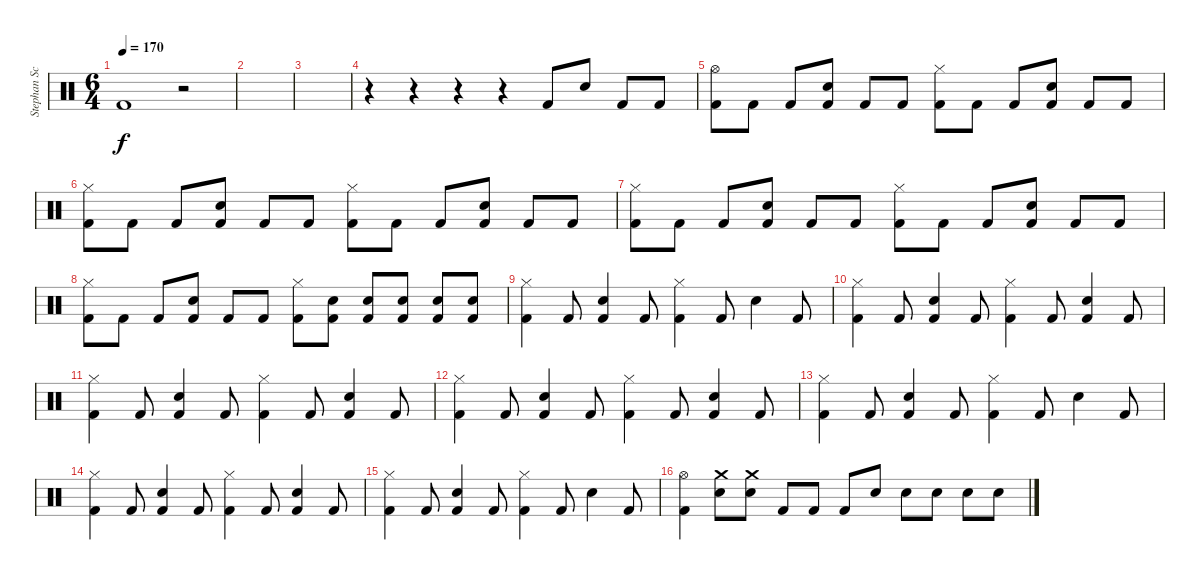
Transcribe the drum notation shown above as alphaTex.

\track ("Stephan Schwartzmann" "Stephan Sc") {instrument percussion}
\staff {score}
\articulation defaults
\ts (6 4)
\tempo 170
\clef neutral
\ks c "Kick (hit) 2".1{dy f}
r.2 |
|
|
r.4 r.4 r.4 r.4 "Kick (hit) 2".8 "Snare (hit) 2".8 "Kick (hit) 2".8 "Kick (hit) 2".8 |
("Hi-Hat (open)" "Kick (hit) 2").8 "Kick (hit) 2".8 "Kick (hit) 2".8 ("Snare (hit) 2" "Kick (hit) 2").8 "Kick (hit) 2".8 "Kick (hit) 2".8 ("Hi-Hat (closed)" "Kick (hit) 2").8 "Kick (hit) 2".8 "Kick (hit) 2".8 ("Snare (hit) 2" "Kick (hit) 2").8 "Kick (hit) 2".8 "Kick (hit) 2".8 |
("Hi-Hat (closed)" "Kick (hit) 2").8 "Kick (hit) 2".8 "Kick (hit) 2".8 ("Snare (hit) 2" "Kick (hit) 2").8 "Kick (hit) 2".8 "Kick (hit) 2".8 ("Hi-Hat (closed)" "Kick (hit) 2").8 "Kick (hit) 2".8 "Kick (hit) 2".8 ("Snare (hit) 2" "Kick (hit) 2").8 "Kick (hit) 2".8 "Kick (hit) 2".8 |
("Hi-Hat (closed)" "Kick (hit) 2").8 "Kick (hit) 2".8 "Kick (hit) 2".8 ("Snare (hit) 2" "Kick (hit) 2").8 "Kick (hit) 2".8 "Kick (hit) 2".8 ("Hi-Hat (closed)" "Kick (hit) 2").8 "Kick (hit) 2".8 "Kick (hit) 2".8 ("Snare (hit) 2" "Kick (hit) 2").8 "Kick (hit) 2".8 "Kick (hit) 2".8 |
("Hi-Hat (closed)" "Kick (hit) 2").8 "Kick (hit) 2".8 "Kick (hit) 2".8 ("Snare (hit) 2" "Kick (hit) 2").8 "Kick (hit) 2".8 "Kick (hit) 2".8 ("Hi-Hat (closed)" "Kick (hit) 2").8 ("Snare (hit) 2" "Kick (hit) 2").8 ("Snare (hit) 2" "Kick (hit) 2").8 ("Snare (hit) 2" "Kick (hit) 2").8 ("Snare (hit) 2" "Kick (hit) 2").8 ("Snare (hit) 2" "Kick (hit) 2").8 |
("Hi-Hat (closed)" "Kick (hit) 2").4 "Kick (hit) 2".8 ("Snare (hit) 2" "Kick (hit) 2").4 "Kick (hit) 2".8 ("Hi-Hat (closed)" "Kick (hit) 2").4 "Kick (hit) 2".8 "Snare (hit) 2".4 "Kick (hit) 2".8 |
("Hi-Hat (closed)" "Kick (hit) 2").4 "Kick (hit) 2".8 ("Snare (hit) 2" "Kick (hit) 2").4 "Kick (hit) 2".8 ("Hi-Hat (closed)" "Kick (hit) 2").4 "Kick (hit) 2".8 ("Snare (hit) 2" "Kick (hit) 2").4 "Kick (hit) 2".8 |
("Hi-Hat (closed)" "Kick (hit) 2").4 "Kick (hit) 2".8 ("Snare (hit) 2" "Kick (hit) 2").4 "Kick (hit) 2".8 ("Hi-Hat (closed)" "Kick (hit) 2").4 "Kick (hit) 2".8 ("Snare (hit) 2" "Kick (hit) 2").4 "Kick (hit) 2".8 |
("Hi-Hat (closed)" "Kick (hit) 2").4 "Kick (hit) 2".8 ("Snare (hit) 2" "Kick (hit) 2").4 "Kick (hit) 2".8 ("Hi-Hat (closed)" "Kick (hit) 2").4 "Kick (hit) 2".8 ("Snare (hit) 2" "Kick (hit) 2").4 "Kick (hit) 2".8 |
("Hi-Hat (closed)" "Kick (hit) 2").4 "Kick (hit) 2".8 ("Snare (hit) 2" "Kick (hit) 2").4 "Kick (hit) 2".8 ("Hi-Hat (closed)" "Kick (hit) 2").4 "Kick (hit) 2".8 "Snare (hit) 2".4 "Kick (hit) 2".8 |
("Hi-Hat (closed)" "Kick (hit) 2").4 "Kick (hit) 2".8 ("Snare (hit) 2" "Kick (hit) 2").4 "Kick (hit) 2".8 ("Hi-Hat (closed)" "Kick (hit) 2").4 "Kick (hit) 2".8 ("Snare (hit) 2" "Kick (hit) 2").4 "Kick (hit) 2".8 |
("Hi-Hat (closed)" "Kick (hit) 2").4 "Kick (hit) 2".8 ("Snare (hit) 2" "Kick (hit) 2").4 "Kick (hit) 2".8 ("Hi-Hat (closed)" "Kick (hit) 2").4 "Kick (hit) 2".8 "Snare (hit) 2".4 "Kick (hit) 2".8 |
("Hi-Hat (open)" "Kick (hit) 2").4 ("Crash medium (hit)" "Snare (hit) 2").8 ("Crash medium (hit)" "Snare (hit) 2").8 "Kick (hit) 2".8 "Kick (hit) 2".8 "Kick (hit) 2".8 "Snare (hit) 2".8 "Snare (hit) 2".8 "Snare (hit) 2".8 "Snare (hit) 2".8 "Snare (hit) 2".8
